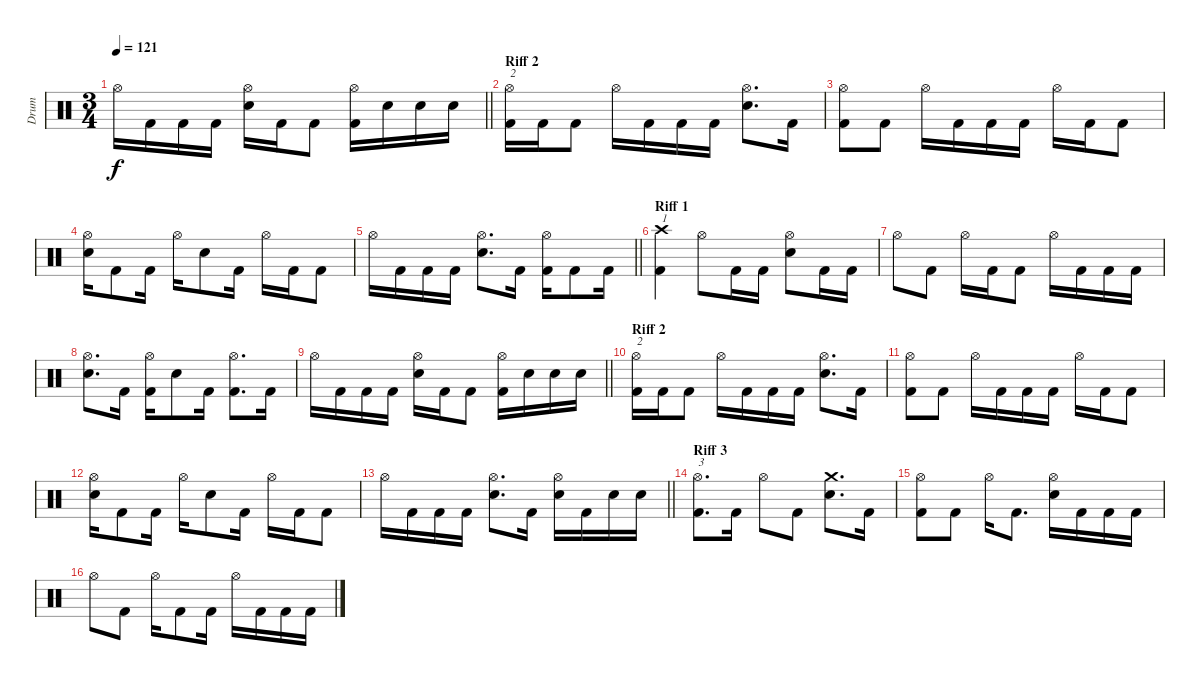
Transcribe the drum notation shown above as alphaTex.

\track ("Drum" "Drum") {instrument percussion}
\staff
\articulation defaults
\ts (3 4)
\tempo 121
\clef neutral
\barLineRight lightlight
\ks c "Hi-Hat (open)".16{dy f} "Kick (hit) 2".16 "Kick (hit) 2".16 "Kick (hit) 2".16
("Electric Snare (hit)" "Hi-Hat (open)").16 "Kick (hit) 2".16 "Kick (hit) 2".8 ("Kick (hit) 2" "Hi-Hat (open)").16 "Electric Snare (hit)".16 "Electric Snare (hit)".16 "Electric Snare (hit)".16 |
\section ("" "Riff 2")
("Kick (hit) 2" "Hi-Hat (open)").16{txt "2"} "Kick (hit) 2".16 "Kick (hit) 2".8 "Hi-Hat (open)".16 "Kick (hit) 2".16 "Kick (hit) 2".16 "Kick (hit) 2".16 ("Electric Snare (hit)" "Hi-Hat (open)").8{d} "Kick (hit) 2".16 |
("Kick (hit) 2" "Hi-Hat (open)").8 "Kick (hit) 2".8 "Hi-Hat (open)".16 "Kick (hit) 2".16 "Kick (hit) 2".16 "Kick (hit) 2".16 "Hi-Hat (open)".16 "Kick (hit) 2".16 "Kick (hit) 2".8 |
("Electric Snare (hit)" "Hi-Hat (open)").16 "Kick (hit) 2".8 "Kick (hit) 2".16 "Hi-Hat (open)".16 "Electric Snare (hit)".8 "Kick (hit) 2".16 "Hi-Hat (open)".16 "Kick (hit) 2".16 "Kick (hit) 2".8 |
\barLineRight lightlight "Hi-Hat (open)".16 "Kick (hit) 2".16 "Kick (hit) 2".16 "Kick (hit) 2".16
("Electric Snare (hit)" "Hi-Hat (open)").8{d} "Kick (hit) 2".16 ("Kick (hit) 2" "Hi-Hat (open)").16 "Kick (hit) 2".8 "Kick (hit) 2".16 |
\section ("" "Riff 1")
("Kick (hit) 2" "Crash high (hit)").4{txt "1"} "Hi-Hat (open)".8 "Kick (hit) 2".16 "Kick (hit) 2".16 ("Electric Snare (hit)" "Hi-Hat (open)").8 "Kick (hit) 2".16 "Kick (hit) 2".16 |
"Hi-Hat (open)".8 "Kick (hit) 2".8 "Hi-Hat (open)".16 "Kick (hit) 2".16 "Kick (hit) 2".8 "Hi-Hat (open)".16 "Kick (hit) 2".16 "Kick (hit) 2".16 "Kick (hit) 2".16 |
("Electric Snare (hit)" "Hi-Hat (open)").8{d} "Kick (hit) 2".16 ("Kick (hit) 2" "Hi-Hat (open)").16 "Electric Snare (hit)".8 "Kick (hit) 2".16 ("Kick (hit) 2" "Hi-Hat (open)").8{d} "Kick (hit) 2".16 |
\barLineRight lightlight "Hi-Hat (open)".16 "Kick (hit) 2".16 "Kick (hit) 2".16 "Kick (hit) 2".16
("Electric Snare (hit)" "Hi-Hat (open)").16 "Kick (hit) 2".16 "Kick (hit) 2".8 ("Kick (hit) 2" "Hi-Hat (open)").16 "Electric Snare (hit)".16 "Electric Snare (hit)".16 "Electric Snare (hit)".16 |
\section ("" "Riff 2")
("Kick (hit) 2" "Hi-Hat (open)").16{txt "2"} "Kick (hit) 2".16 "Kick (hit) 2".8 "Hi-Hat (open)".16 "Kick (hit) 2".16 "Kick (hit) 2".16 "Kick (hit) 2".16 ("Electric Snare (hit)" "Hi-Hat (open)").8{d} "Kick (hit) 2".16 |
("Kick (hit) 2" "Hi-Hat (open)").8 "Kick (hit) 2".8 "Hi-Hat (open)".16 "Kick (hit) 2".16 "Kick (hit) 2".16 "Kick (hit) 2".16 "Hi-Hat (open)".16 "Kick (hit) 2".16 "Kick (hit) 2".8 |
("Electric Snare (hit)" "Hi-Hat (open)").16 "Kick (hit) 2".8 "Kick (hit) 2".16 "Hi-Hat (open)".16 "Electric Snare (hit)".8 "Kick (hit) 2".16 "Hi-Hat (open)".16 "Kick (hit) 2".16 "Kick (hit) 2".8 |
\barLineRight lightlight "Hi-Hat (open)".16 "Kick (hit) 2".16 "Kick (hit) 2".16 "Kick (hit) 2".16
("Electric Snare (hit)" "Hi-Hat (open)").8{d} "Kick (hit) 2".16 ("Electric Snare (hit)" "Hi-Hat (open)").16 "Kick (hit) 2".16 "Electric Snare (hit)".16 "Electric Snare (hit)".16 |
\section ("" "Riff 3")
("Kick (hit) 2" "Hi-Hat (open)").8{d txt "3"} "Kick (hit) 2".16 "Hi-Hat (open)".8 "Kick (hit) 2".8 ("Electric Snare (hit)" "Crash medium (hit)").8{d} "Kick (hit) 2".16 |
("Kick (hit) 2" "Hi-Hat (open)").8 "Kick (hit) 2".8 "Hi-Hat (open)".16 "Kick (hit) 2".8{d} ("Electric Snare (hit)" "Hi-Hat (open)").16 "Kick (hit) 2".16 "Kick (hit) 2".16 "Kick (hit) 2".16 |
"Hi-Hat (open)".8 "Kick (hit) 2".8 "Hi-Hat (open)".16 "Kick (hit) 2".8 "Kick (hit) 2".16 "Hi-Hat (open)".16 "Kick (hit) 2".16 "Kick (hit) 2".16 "Kick (hit) 2".16
